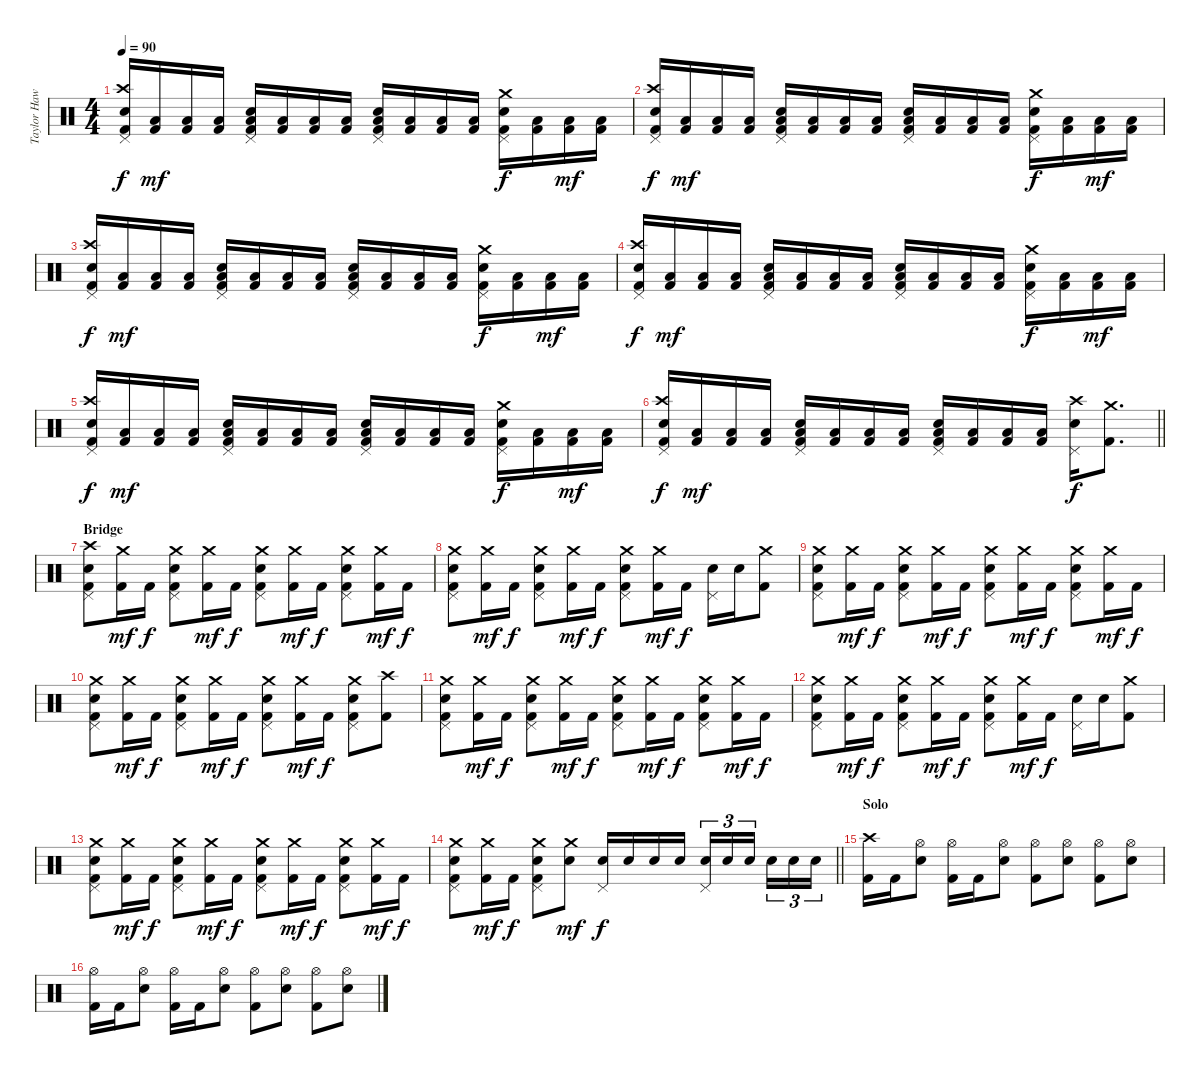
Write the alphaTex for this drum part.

\track ("Taylor Hawkins " "Taylor Haw") {instrument percussion}
\staff {score}
\articulation defaults
\ts (4 4)
\tempo 90
\clef neutral
\ks c
("Pedal Hi-Hat (hit)" "Crash high (hit)" "Snare (hit) 2" "Kick (hit) 2").16{dy f} ("Low Tom (hit)" "Kick (hit) 2").16{dy mf} ("Low Floor Tom (hit)" "Kick (hit) 2").16 ("Low Floor Tom (hit)" "Kick (hit) 2").16 ("Pedal Hi-Hat (hit)" "Low Floor Tom (hit)" "Snare (hit) 2" "Kick (hit) 2").16 ("Low Tom (hit)" "Kick (hit) 2").16 ("Low Floor Tom (hit)" "Kick (hit) 2").16 ("Low Floor Tom (hit)" "Kick (hit) 2").16 ("Pedal Hi-Hat (hit)" "Low Floor Tom (hit)" "Snare (hit) 2" "Kick (hit) 2").16 ("Low Tom (hit)" "Kick (hit) 2").16 ("Low Floor Tom (hit)" "Kick (hit) 2").16 ("Low Floor Tom (hit)" "Kick (hit) 2").16 ("Pedal Hi-Hat (hit)" "Crash medium (hit)" "Snare (hit) 2" "Kick (hit) 2").16{dy f} ("Low Tom (hit)" "Kick (hit) 2").16 ("Low Floor Tom (hit)" "Kick (hit) 2").16{dy mf} ("Low Floor Tom (hit)" "Kick (hit) 2").16 |
("Pedal Hi-Hat (hit)" "Crash high (hit)" "Snare (hit) 2" "Kick (hit) 2").16{dy f} ("Low Tom (hit)" "Kick (hit) 2").16{dy mf} ("Low Floor Tom (hit)" "Kick (hit) 2").16 ("Low Floor Tom (hit)" "Kick (hit) 2").16 ("Pedal Hi-Hat (hit)" "Low Floor Tom (hit)" "Snare (hit) 2" "Kick (hit) 2").16 ("Low Tom (hit)" "Kick (hit) 2").16 ("Low Floor Tom (hit)" "Kick (hit) 2").16 ("Low Floor Tom (hit)" "Kick (hit) 2").16 ("Pedal Hi-Hat (hit)" "Low Floor Tom (hit)" "Snare (hit) 2" "Kick (hit) 2").16 ("Low Tom (hit)" "Kick (hit) 2").16 ("Low Floor Tom (hit)" "Kick (hit) 2").16 ("Low Floor Tom (hit)" "Kick (hit) 2").16 ("Pedal Hi-Hat (hit)" "Crash medium (hit)" "Snare (hit) 2" "Kick (hit) 2").16{dy f} ("Low Tom (hit)" "Kick (hit) 2").16 ("Low Floor Tom (hit)" "Kick (hit) 2").16{dy mf} ("Low Floor Tom (hit)" "Kick (hit) 2").16 |
("Pedal Hi-Hat (hit)" "Crash high (hit)" "Snare (hit) 2" "Kick (hit) 2").16{dy f} ("Low Tom (hit)" "Kick (hit) 2").16{dy mf} ("Low Floor Tom (hit)" "Kick (hit) 2").16 ("Low Floor Tom (hit)" "Kick (hit) 2").16 ("Pedal Hi-Hat (hit)" "Low Floor Tom (hit)" "Snare (hit) 2" "Kick (hit) 2").16 ("Low Tom (hit)" "Kick (hit) 2").16 ("Low Floor Tom (hit)" "Kick (hit) 2").16 ("Low Floor Tom (hit)" "Kick (hit) 2").16 ("Pedal Hi-Hat (hit)" "Low Floor Tom (hit)" "Snare (hit) 2" "Kick (hit) 2").16 ("Low Tom (hit)" "Kick (hit) 2").16 ("Low Floor Tom (hit)" "Kick (hit) 2").16 ("Low Floor Tom (hit)" "Kick (hit) 2").16 ("Pedal Hi-Hat (hit)" "Crash medium (hit)" "Snare (hit) 2" "Kick (hit) 2").16{dy f} ("Low Tom (hit)" "Kick (hit) 2").16 ("Low Floor Tom (hit)" "Kick (hit) 2").16{dy mf} ("Low Floor Tom (hit)" "Kick (hit) 2").16 |
("Pedal Hi-Hat (hit)" "Crash high (hit)" "Snare (hit) 2" "Kick (hit) 2").16{dy f} ("Low Tom (hit)" "Kick (hit) 2").16{dy mf} ("Low Floor Tom (hit)" "Kick (hit) 2").16 ("Low Floor Tom (hit)" "Kick (hit) 2").16 ("Pedal Hi-Hat (hit)" "Low Floor Tom (hit)" "Snare (hit) 2" "Kick (hit) 2").16 ("Low Tom (hit)" "Kick (hit) 2").16 ("Low Floor Tom (hit)" "Kick (hit) 2").16 ("Low Floor Tom (hit)" "Kick (hit) 2").16 ("Pedal Hi-Hat (hit)" "Low Floor Tom (hit)" "Snare (hit) 2" "Kick (hit) 2").16 ("Low Tom (hit)" "Kick (hit) 2").16 ("Low Floor Tom (hit)" "Kick (hit) 2").16 ("Low Floor Tom (hit)" "Kick (hit) 2").16 ("Pedal Hi-Hat (hit)" "Crash medium (hit)" "Snare (hit) 2" "Kick (hit) 2").16{dy f} ("Low Tom (hit)" "Kick (hit) 2").16 ("Low Floor Tom (hit)" "Kick (hit) 2").16{dy mf} ("Low Floor Tom (hit)" "Kick (hit) 2").16 |
("Pedal Hi-Hat (hit)" "Crash high (hit)" "Snare (hit) 2" "Kick (hit) 2").16{dy f} ("Low Tom (hit)" "Kick (hit) 2").16{dy mf} ("Low Floor Tom (hit)" "Kick (hit) 2").16 ("Low Floor Tom (hit)" "Kick (hit) 2").16 ("Pedal Hi-Hat (hit)" "Low Floor Tom (hit)" "Snare (hit) 2" "Kick (hit) 2").16 ("Low Tom (hit)" "Kick (hit) 2").16 ("Low Floor Tom (hit)" "Kick (hit) 2").16 ("Low Floor Tom (hit)" "Kick (hit) 2").16 ("Pedal Hi-Hat (hit)" "Low Floor Tom (hit)" "Snare (hit) 2" "Kick (hit) 2").16 ("Low Tom (hit)" "Kick (hit) 2").16 ("Low Floor Tom (hit)" "Kick (hit) 2").16 ("Low Floor Tom (hit)" "Kick (hit) 2").16 ("Pedal Hi-Hat (hit)" "Crash medium (hit)" "Snare (hit) 2" "Kick (hit) 2").16{dy f} ("Low Tom (hit)" "Kick (hit) 2").16 ("Low Floor Tom (hit)" "Kick (hit) 2").16{dy mf} ("Low Floor Tom (hit)" "Kick (hit) 2").16 |
\barLineRight lightlight
("Pedal Hi-Hat (hit)" "Crash high (hit)" "Snare (hit) 2" "Kick (hit) 2").16{dy f} ("Low Tom (hit)" "Kick (hit) 2").16{dy mf} ("Low Floor Tom (hit)" "Kick (hit) 2").16 ("Low Floor Tom (hit)" "Kick (hit) 2").16 ("Pedal Hi-Hat (hit)" "Low Floor Tom (hit)" "Snare (hit) 2" "Kick (hit) 2").16 ("Low Tom (hit)" "Kick (hit) 2").16 ("Low Floor Tom (hit)" "Kick (hit) 2").16 ("Low Floor Tom (hit)" "Kick (hit) 2").16 ("Pedal Hi-Hat (hit)" "Low Floor Tom (hit)" "Snare (hit) 2" "Kick (hit) 2").16 ("Low Tom (hit)" "Kick (hit) 2").16 ("Low Floor Tom (hit)" "Kick (hit) 2").16 ("Low Floor Tom (hit)" "Kick (hit) 2").16 ("Pedal Hi-Hat (hit)" "Crash high (hit)" "Snare (hit) 2").16{dy f} ("Crash medium (hit)" "Kick (hit) 2").8{d} |
\section ("" "Bridge")
("Pedal Hi-Hat (hit)" "Crash high (hit)" "Snare (hit) 2" "Kick (hit) 2").8 ("Crash medium (hit)" "Kick (hit) 2").16{dy mf} "Kick (hit) 2".16{dy f} ("Pedal Hi-Hat (hit)" "Crash medium (hit)" "Snare (hit) 2" "Kick (hit) 2").8 ("Crash medium (hit)" "Kick (hit) 2").16{dy mf} "Kick (hit) 2".16{dy f} ("Pedal Hi-Hat (hit)" "Crash medium (hit)" "Snare (hit) 2" "Kick (hit) 2").8 ("Crash medium (hit)" "Kick (hit) 2").16{dy mf} "Kick (hit) 2".16{dy f} ("Pedal Hi-Hat (hit)" "Crash medium (hit)" "Snare (hit) 2" "Kick (hit) 2").8 ("Crash medium (hit)" "Kick (hit) 2").16{dy mf} "Kick (hit) 2".16{dy f} |
("Pedal Hi-Hat (hit)" "Crash medium (hit)" "Snare (hit) 2" "Kick (hit) 2").8 ("Crash medium (hit)" "Kick (hit) 2").16{dy mf} "Kick (hit) 2".16{dy f} ("Pedal Hi-Hat (hit)" "Crash medium (hit)" "Snare (hit) 2" "Kick (hit) 2").8 ("Crash medium (hit)" "Kick (hit) 2").16{dy mf} "Kick (hit) 2".16{dy f} ("Pedal Hi-Hat (hit)" "Crash medium (hit)" "Snare (hit) 2" "Kick (hit) 2").8 ("Crash medium (hit)" "Kick (hit) 2").16{dy mf} "Kick (hit) 2".16{dy f} ("Pedal Hi-Hat (hit)" "Snare (hit) 2").16 "Snare (hit) 2".16 ("Crash medium (hit)" "Kick (hit) 2").8 |
("Pedal Hi-Hat (hit)" "Crash medium (hit)" "Snare (hit) 2" "Kick (hit) 2").8 ("Crash medium (hit)" "Kick (hit) 2").16{dy mf} "Kick (hit) 2".16{dy f} ("Pedal Hi-Hat (hit)" "Crash medium (hit)" "Snare (hit) 2" "Kick (hit) 2").8 ("Crash medium (hit)" "Kick (hit) 2").16{dy mf} "Kick (hit) 2".16{dy f} ("Pedal Hi-Hat (hit)" "Crash medium (hit)" "Snare (hit) 2" "Kick (hit) 2").8 ("Crash medium (hit)" "Kick (hit) 2").16{dy mf} "Kick (hit) 2".16{dy f} ("Pedal Hi-Hat (hit)" "Crash medium (hit)" "Snare (hit) 2" "Kick (hit) 2").8 ("Crash medium (hit)" "Kick (hit) 2").16{dy mf} "Kick (hit) 2".16{dy f} |
("Pedal Hi-Hat (hit)" "Crash medium (hit)" "Snare (hit) 2" "Kick (hit) 2").8 ("Crash medium (hit)" "Kick (hit) 2").16{dy mf} "Kick (hit) 2".16{dy f} ("Pedal Hi-Hat (hit)" "Crash medium (hit)" "Snare (hit) 2" "Kick (hit) 2").8 ("Crash medium (hit)" "Kick (hit) 2").16{dy mf} "Kick (hit) 2".16{dy f} ("Pedal Hi-Hat (hit)" "Crash medium (hit)" "Snare (hit) 2" "Kick (hit) 2").8 ("Crash medium (hit)" "Kick (hit) 2").16{dy mf} "Kick (hit) 2".16{dy f} ("Pedal Hi-Hat (hit)" "Crash medium (hit)" "Snare (hit) 2" "Kick (hit) 2").8 ("Crash high (hit)" "Kick (hit) 2").8 |
("Pedal Hi-Hat (hit)" "Crash medium (hit)" "Snare (hit) 2" "Kick (hit) 2").8 ("Crash medium (hit)" "Kick (hit) 2").16{dy mf} "Kick (hit) 2".16{dy f} ("Pedal Hi-Hat (hit)" "Crash medium (hit)" "Snare (hit) 2" "Kick (hit) 2").8 ("Crash medium (hit)" "Kick (hit) 2").16{dy mf} "Kick (hit) 2".16{dy f} ("Pedal Hi-Hat (hit)" "Crash medium (hit)" "Snare (hit) 2" "Kick (hit) 2").8 ("Crash medium (hit)" "Kick (hit) 2").16{dy mf} "Kick (hit) 2".16{dy f} ("Pedal Hi-Hat (hit)" "Crash medium (hit)" "Snare (hit) 2" "Kick (hit) 2").8 ("Crash medium (hit)" "Kick (hit) 2").16{dy mf} "Kick (hit) 2".16{dy f} |
("Pedal Hi-Hat (hit)" "Crash medium (hit)" "Snare (hit) 2" "Kick (hit) 2").8 ("Crash medium (hit)" "Kick (hit) 2").16{dy mf} "Kick (hit) 2".16{dy f} ("Pedal Hi-Hat (hit)" "Crash medium (hit)" "Snare (hit) 2" "Kick (hit) 2").8 ("Crash medium (hit)" "Kick (hit) 2").16{dy mf} "Kick (hit) 2".16{dy f} ("Pedal Hi-Hat (hit)" "Crash medium (hit)" "Snare (hit) 2" "Kick (hit) 2").8 ("Crash medium (hit)" "Kick (hit) 2").16{dy mf} "Kick (hit) 2".16{dy f} ("Pedal Hi-Hat (hit)" "Snare (hit) 2").16 "Snare (hit) 2".16 ("Crash medium (hit)" "Kick (hit) 2").8 |
("Pedal Hi-Hat (hit)" "Crash medium (hit)" "Snare (hit) 2" "Kick (hit) 2").8 ("Crash medium (hit)" "Kick (hit) 2").16{dy mf} "Kick (hit) 2".16{dy f} ("Pedal Hi-Hat (hit)" "Crash medium (hit)" "Snare (hit) 2" "Kick (hit) 2").8 ("Crash medium (hit)" "Kick (hit) 2").16{dy mf} "Kick (hit) 2".16{dy f} ("Pedal Hi-Hat (hit)" "Crash medium (hit)" "Snare (hit) 2" "Kick (hit) 2").8 ("Crash medium (hit)" "Kick (hit) 2").16{dy mf} "Kick (hit) 2".16{dy f} ("Pedal Hi-Hat (hit)" "Crash medium (hit)" "Snare (hit) 2" "Kick (hit) 2").8 ("Crash medium (hit)" "Kick (hit) 2").16{dy mf} "Kick (hit) 2".16{dy f} |
\barLineRight lightlight
("Pedal Hi-Hat (hit)" "Crash medium (hit)" "Snare (hit) 2" "Kick (hit) 2").8 ("Crash medium (hit)" "Kick (hit) 2").16{dy mf} "Kick (hit) 2".16{dy f} ("Pedal Hi-Hat (hit)" "Crash medium (hit)" "Snare (hit) 2" "Kick (hit) 2").8 ("Crash medium (hit)" "Snare (hit) 2").8{dy mf} ("Pedal Hi-Hat (hit)" "Snare (hit) 2").16{dy f} "Snare (hit) 2".16 "Snare (hit) 2".16 "Snare (hit) 2".16 ("Pedal Hi-Hat (hit)" "Snare (hit) 2").16{tu (3 2)} "Snare (hit) 2".16{tu (3 2)} "Snare (hit) 2".16{tu (3 2) beam splitsecondary} "Snare (hit) 2".16{tu (3 2)} "Snare (hit) 2".16{tu (3 2)} "Snare (hit) 2".16{tu (3 2)} |
\section ("" "Solo")
("Crash high (hit)" "Kick (hit) 2").16 "Kick (hit) 2".16 ("Hi-Hat (open)" "Snare (hit) 2").8 ("Hi-Hat (open)" "Kick (hit) 2").16 "Kick (hit) 2".16 ("Hi-Hat (open)" "Snare (hit) 2").8 ("Hi-Hat (open)" "Kick (hit) 2").8 ("Hi-Hat (open)" "Snare (hit) 2").8 ("Hi-Hat (open)" "Kick (hit) 2").8 ("Hi-Hat (open)" "Snare (hit) 2").8 |
("Hi-Hat (open)" "Kick (hit) 2").16 "Kick (hit) 2".16 ("Hi-Hat (open)" "Snare (hit) 2").8 ("Hi-Hat (open)" "Kick (hit) 2").16 "Kick (hit) 2".16 ("Hi-Hat (open)" "Snare (hit) 2").8 ("Hi-Hat (open)" "Kick (hit) 2").8 ("Hi-Hat (open)" "Snare (hit) 2").8 ("Hi-Hat (open)" "Kick (hit) 2").8 ("Hi-Hat (open)" "Snare (hit) 2").8
